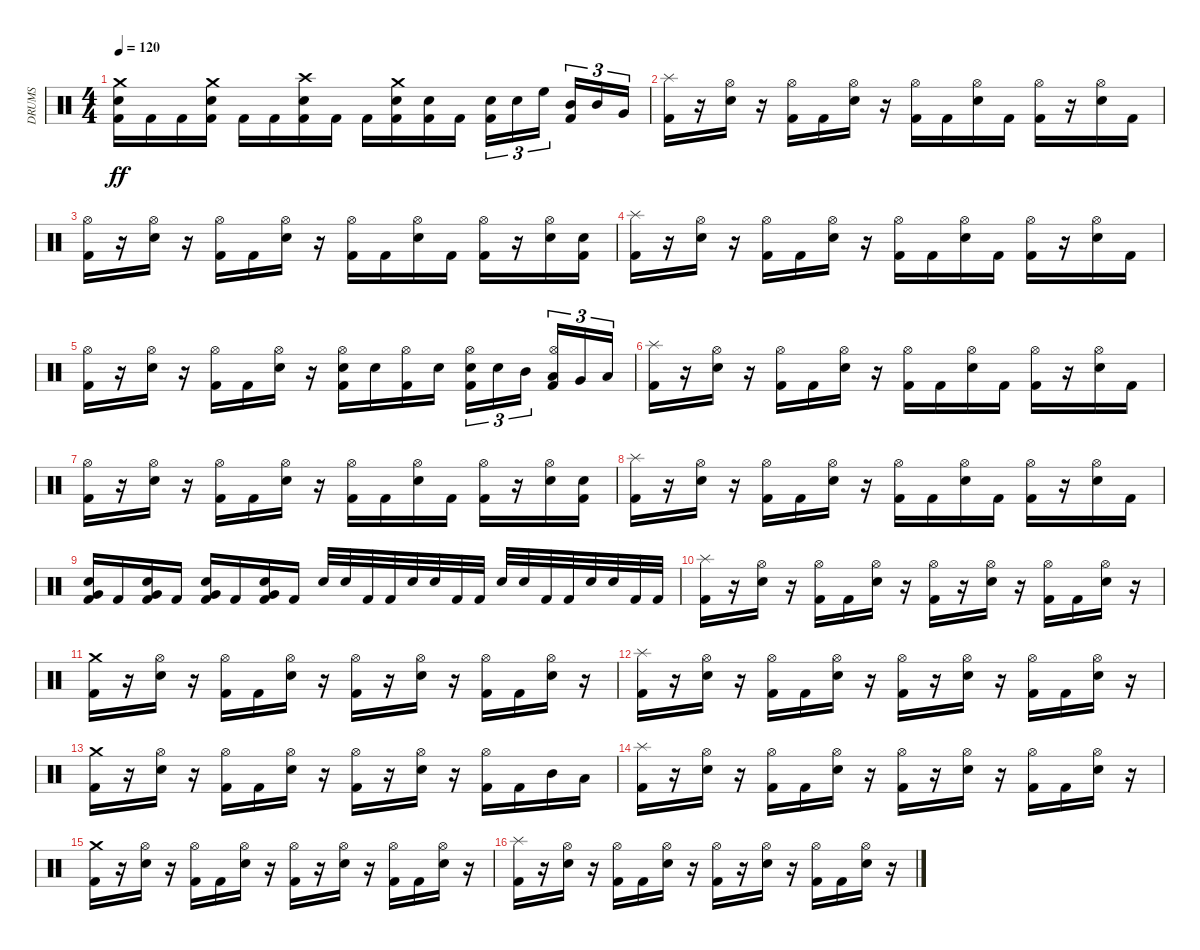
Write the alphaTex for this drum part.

\track ("DRUMS" "DRUMS") {instrument percussion}
\staff {score}
\articulation defaults
\ts (4 4)
\tempo 120
\clef neutral
\ks c
("Kick (hit) 2" "Electric Snare (hit)" "Crash medium (hit)").16{dy ff} "Kick (hit) 2".16 "Kick (hit) 2".16 ("Kick (hit) 2" "Electric Snare (hit)" "Crash medium (hit)").16 "Kick (hit) 2".16 "Kick (hit) 2".16 ("Kick (hit) 2" "Electric Snare (hit)" "Crash high (hit)").16 "Kick (hit) 2".16 "Kick (hit) 2".16 ("Kick (hit) 2" "Electric Snare (hit)" "Crash medium (hit)").16 ("Kick (hit) 2" "Electric Snare (hit)").16 "Kick (hit) 2".16 ("Kick (hit) 2" "Electric Snare (hit)").16{tu (3 2)} "Electric Snare (hit)".16{tu (3 2)} "High Floor Tom (hit)".16{tu (3 2) beam splitsecondary} ("Kick (hit) 2" "Mid Tom (hit)").16{tu (3 2)} "Mid Tom (hit)".16{tu (3 2)} "Very Low Tom (hit)".16{tu (3 2)} |
("Kick (hit) 2" "Splash (hit)").16 r.16 ("Electric Snare (hit)" "Hi-Hat (open)").16 r.16 ("Kick (hit) 2" "Hi-Hat (open)").16 "Kick (hit) 2".16 ("Electric Snare (hit)" "Hi-Hat (open)").16 r.16 ("Kick (hit) 2" "Hi-Hat (open)").16 "Kick (hit) 2".16 ("Electric Snare (hit)" "Hi-Hat (open)").16 "Kick (hit) 2".16 ("Kick (hit) 2" "Hi-Hat (open)").16 r.16 ("Electric Snare (hit)" "Hi-Hat (open)").16 "Kick (hit) 2".16 |
("Kick (hit) 2" "Hi-Hat (open)").16 r.16 ("Electric Snare (hit)" "Hi-Hat (open)").16 r.16 ("Kick (hit) 2" "Hi-Hat (open)").16 "Kick (hit) 2".16 ("Electric Snare (hit)" "Hi-Hat (open)").16 r.16 ("Kick (hit) 2" "Hi-Hat (open)").16 "Kick (hit) 2".16 ("Electric Snare (hit)" "Hi-Hat (open)").16 "Kick (hit) 2".16 ("Kick (hit) 2" "Hi-Hat (open)").16 r.16 ("Electric Snare (hit)" "Hi-Hat (open)").16 ("Kick (hit) 2" "Electric Snare (hit)").16 |
("Kick (hit) 2" "Splash (hit)").16 r.16 ("Electric Snare (hit)" "Hi-Hat (open)").16 r.16 ("Kick (hit) 2" "Hi-Hat (open)").16 "Kick (hit) 2".16 ("Electric Snare (hit)" "Hi-Hat (open)").16 r.16 ("Kick (hit) 2" "Hi-Hat (open)").16 "Kick (hit) 2".16 ("Electric Snare (hit)" "Hi-Hat (open)").16 "Kick (hit) 2".16 ("Kick (hit) 2" "Hi-Hat (open)").16 r.16 ("Electric Snare (hit)" "Hi-Hat (open)").16 "Kick (hit) 2".16 |
("Kick (hit) 2" "Hi-Hat (open)").16 r.16 ("Electric Snare (hit)" "Hi-Hat (open)").16 r.16 ("Kick (hit) 2" "Hi-Hat (open)").16 "Kick (hit) 2".16 ("Electric Snare (hit)" "Hi-Hat (open)").16 r.16 ("Kick (hit) 2" "Electric Snare (hit)" "Hi-Hat (open)").16 "Electric Snare (hit)".16 ("Kick (hit) 2" "Hi-Hat (open)").16 "Electric Snare (hit)".16 ("Kick (hit) 2" "Electric Snare (hit)" "Hi-Hat (open)").16{tu (3 2)} "Electric Snare (hit)".16{tu (3 2)} "Mid Tom (hit)".16{tu (3 2) beam splitsecondary} ("Kick (hit) 2" "Hi-Hat (open)" "Low Tom (hit)").16{tu (3 2)} "Very Low Tom (hit)".16{tu (3 2)} "Low Floor Tom (hit)".16{tu (3 2)} |
("Kick (hit) 2" "Splash (hit)").16 r.16 ("Electric Snare (hit)" "Hi-Hat (open)").16 r.16 ("Kick (hit) 2" "Hi-Hat (open)").16 "Kick (hit) 2".16 ("Electric Snare (hit)" "Hi-Hat (open)").16 r.16 ("Kick (hit) 2" "Hi-Hat (open)").16 "Kick (hit) 2".16 ("Electric Snare (hit)" "Hi-Hat (open)").16 "Kick (hit) 2".16 ("Kick (hit) 2" "Hi-Hat (open)").16 r.16 ("Electric Snare (hit)" "Hi-Hat (open)").16 "Kick (hit) 2".16 |
("Kick (hit) 2" "Hi-Hat (open)").16 r.16 ("Electric Snare (hit)" "Hi-Hat (open)").16 r.16 ("Kick (hit) 2" "Hi-Hat (open)").16 "Kick (hit) 2".16 ("Electric Snare (hit)" "Hi-Hat (open)").16 r.16 ("Kick (hit) 2" "Hi-Hat (open)").16 "Kick (hit) 2".16 ("Electric Snare (hit)" "Hi-Hat (open)").16 "Kick (hit) 2".16 ("Kick (hit) 2" "Hi-Hat (open)").16 r.16 ("Electric Snare (hit)" "Hi-Hat (open)").16 ("Kick (hit) 2" "Electric Snare (hit)").16 |
("Kick (hit) 2" "Splash (hit)").16 r.16 ("Electric Snare (hit)" "Hi-Hat (open)").16 r.16 ("Kick (hit) 2" "Hi-Hat (open)").16 "Kick (hit) 2".16 ("Electric Snare (hit)" "Hi-Hat (open)").16 r.16 ("Kick (hit) 2" "Hi-Hat (open)").16 "Kick (hit) 2".16 ("Electric Snare (hit)" "Hi-Hat (open)").16 "Kick (hit) 2".16 ("Kick (hit) 2" "Hi-Hat (open)").16 r.16 ("Electric Snare (hit)" "Hi-Hat (open)").16 "Kick (hit) 2".16 |
("Kick (hit) 2" "Electric Snare (hit)" "Very Low Tom (hit)").16 "Kick (hit) 2".16 ("Kick (hit) 2" "Electric Snare (hit)" "Very Low Tom (hit)").16 "Kick (hit) 2".16 ("Kick (hit) 2" "Electric Snare (hit)" "Very Low Tom (hit)").16 "Kick (hit) 2".16 ("Kick (hit) 2" "Electric Snare (hit)" "Very Low Tom (hit)").16 "Kick (hit) 2".16 "Electric Snare (hit)".32 "Electric Snare (hit)".32 "Kick (hit) 2".32 "Kick (hit) 2".32 "Electric Snare (hit)".32 "Electric Snare (hit)".32 "Kick (hit) 2".32 "Kick (hit) 2".32 "Electric Snare (hit)".32 "Electric Snare (hit)".32 "Kick (hit) 2".32 "Kick (hit) 2".32 "Electric Snare (hit)".32 "Electric Snare (hit)".32 "Kick (hit) 2".32 "Kick (hit) 2".32 |
("Kick (hit) 2" "Splash (hit)").16 r.16 ("Electric Snare (hit)" "Hi-Hat (open)").16 r.16 ("Kick (hit) 2" "Hi-Hat (open)").16 "Kick (hit) 2".16 ("Electric Snare (hit)" "Hi-Hat (open)").16 r.16 ("Kick (hit) 2" "Hi-Hat (open)").16 r.16 ("Electric Snare (hit)" "Hi-Hat (open)").16 r.16 ("Kick (hit) 2" "Hi-Hat (open)").16 "Kick (hit) 2".16 ("Electric Snare (hit)" "Hi-Hat (open)").16 r.16 |
("Kick (hit) 2" "Crash medium (hit)").16 r.16 ("Electric Snare (hit)" "Hi-Hat (open)").16 r.16 ("Kick (hit) 2" "Hi-Hat (open)").16 "Kick (hit) 2".16 ("Electric Snare (hit)" "Hi-Hat (open)").16 r.16 ("Kick (hit) 2" "Hi-Hat (open)").16 r.16 ("Electric Snare (hit)" "Hi-Hat (open)").16 r.16 ("Kick (hit) 2" "Hi-Hat (open)").16 "Kick (hit) 2".16 ("Electric Snare (hit)" "Hi-Hat (open)").16 r.16 |
("Kick (hit) 2" "Splash (hit)").16 r.16 ("Electric Snare (hit)" "Hi-Hat (open)").16 r.16 ("Kick (hit) 2" "Hi-Hat (open)").16 "Kick (hit) 2".16 ("Electric Snare (hit)" "Hi-Hat (open)").16 r.16 ("Kick (hit) 2" "Hi-Hat (open)").16 r.16 ("Electric Snare (hit)" "Hi-Hat (open)").16 r.16 ("Kick (hit) 2" "Hi-Hat (open)").16 "Kick (hit) 2".16 ("Electric Snare (hit)" "Hi-Hat (open)").16 r.16 |
("Kick (hit) 2" "Crash medium (hit)").16 r.16 ("Electric Snare (hit)" "Hi-Hat (open)").16 r.16 ("Kick (hit) 2" "Hi-Hat (open)").16 "Kick (hit) 2".16 ("Electric Snare (hit)" "Hi-Hat (open)").16 r.16 ("Kick (hit) 2" "Hi-Hat (open)").16 r.16 ("Electric Snare (hit)" "Hi-Hat (open)").16 r.16 ("Kick (hit) 2" "Hi-Hat (open)").16 "Kick (hit) 2".16 "Mid Tom (hit)".16 "Low Floor Tom (hit)".16 |
("Kick (hit) 2" "Splash (hit)").16 r.16 ("Electric Snare (hit)" "Hi-Hat (open)").16 r.16 ("Kick (hit) 2" "Hi-Hat (open)").16 "Kick (hit) 2".16 ("Electric Snare (hit)" "Hi-Hat (open)").16 r.16 ("Kick (hit) 2" "Hi-Hat (open)").16 r.16 ("Electric Snare (hit)" "Hi-Hat (open)").16 r.16 ("Kick (hit) 2" "Hi-Hat (open)").16 "Kick (hit) 2".16 ("Electric Snare (hit)" "Hi-Hat (open)").16 r.16 |
("Kick (hit) 2" "Crash medium (hit)").16 r.16 ("Electric Snare (hit)" "Hi-Hat (open)").16 r.16 ("Kick (hit) 2" "Hi-Hat (open)").16 "Kick (hit) 2".16 ("Electric Snare (hit)" "Hi-Hat (open)").16 r.16 ("Kick (hit) 2" "Hi-Hat (open)").16 r.16 ("Electric Snare (hit)" "Hi-Hat (open)").16 r.16 ("Kick (hit) 2" "Hi-Hat (open)").16 "Kick (hit) 2".16 ("Electric Snare (hit)" "Hi-Hat (open)").16 r.16 |
("Kick (hit) 2" "Splash (hit)").16 r.16 ("Electric Snare (hit)" "Hi-Hat (open)").16 r.16 ("Kick (hit) 2" "Hi-Hat (open)").16 "Kick (hit) 2".16 ("Electric Snare (hit)" "Hi-Hat (open)").16 r.16 ("Kick (hit) 2" "Hi-Hat (open)").16 r.16 ("Electric Snare (hit)" "Hi-Hat (open)").16 r.16 ("Kick (hit) 2" "Hi-Hat (open)").16 "Kick (hit) 2".16 ("Electric Snare (hit)" "Hi-Hat (open)").16 r.16
